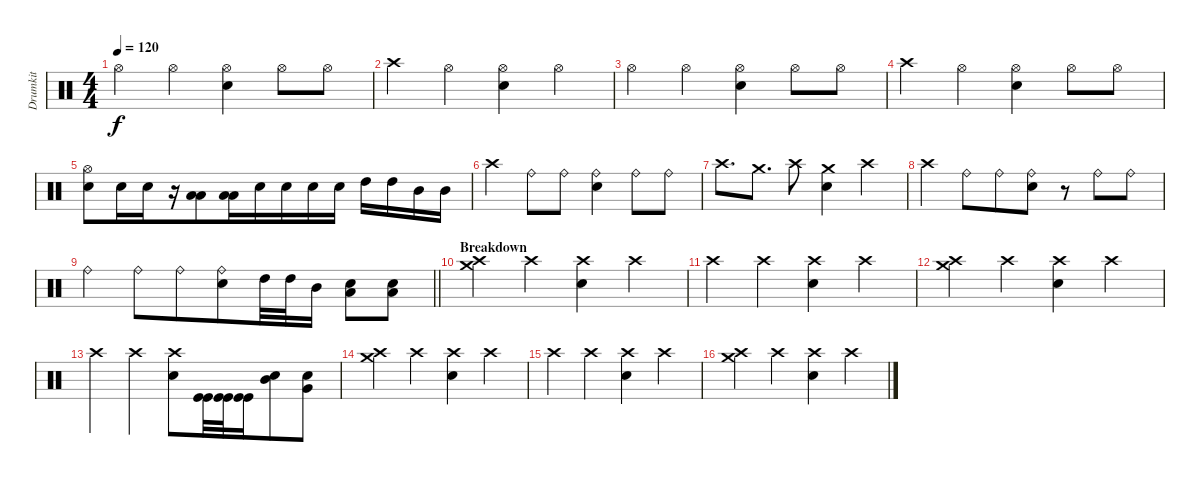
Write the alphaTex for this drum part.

\track ("Drumkit" "Drumkit") {instrument percussion}
\staff {score}
\articulation defaults
\ts (4 4)
\tempo 120
\clef neutral
\ks c "Hi-Hat (open)".4{dy f} "Hi-Hat (open)".4
("Hi-Hat (open)" "Electric Snare (hit)").4 "Hi-Hat (open)".8{beam merge} "Hi-Hat (open)".8 |
"Crash high (hit)".4 "Hi-Hat (open)".4{beam merge} ("Hi-Hat (open)" "Electric Snare (hit)").4 "Hi-Hat (open)".4 |
"Hi-Hat (open)".4 "Hi-Hat (open)".4 ("Hi-Hat (open)" "Electric Snare (hit)").4 "Hi-Hat (open)".8 "Hi-Hat (open)".8 |
"Crash high (hit)".4 "Hi-Hat (open)".4{beam merge} ("Hi-Hat (open)" "Electric Snare (hit)").4 "Hi-Hat (open)".8 "Hi-Hat (open)".8 |
("Hi-Hat (open)" "Electric Snare (hit)").8 "Electric Snare (hit)".16 "Electric Snare (hit)".16{beam merge} r.16 ("Low Floor Tom (hit)" "Low Floor Tom (hit)").8 ("Low Floor Tom (hit)" "Low Floor Tom (hit)").16{beam merge} "Electric Snare (hit)".16{beam merge} "Electric Snare (hit)".16{beam merge} "Electric Snare (hit)".16 "Electric Snare (hit)".16 "High Tom (hit)".16{beam merge} "High Tom (hit)".16 "Mid Tom (hit)".16{beam merge} "Mid Tom (hit)".16 |
"Crash high (hit)".4 "Ride (bell)".8{beam merge} "Ride (bell)".8{beam merge} ("Ride (bell)" "Electric Snare (hit)").4{beam merge} "Ride (bell)".8 "Ride (bell)".8 |
"Crash high (hit)".8{d beam merge} "Crash medium (hit)".8{d} "Crash high (hit)".8 ("Crash medium (hit)" "Electric Snare (hit)").4 "Crash high (hit)".4 |
"Crash high (hit)".4{beam merge} "Ride (bell)".8 "Ride (bell)".8{beam merge} ("Ride (bell)" "Electric Snare (hit)").8 r.8{beam merge} "Ride (bell)".8 "Ride (bell)".8 |
\barLineRight lightlight "Ride (bell)".4 "Ride (bell)".8{beam merge} "Ride (bell)".8{beam merge}
("Ride (bell)" "Electric Snare (hit)").8{beam merge} "High Tom (hit)".32{beam merge} "High Tom (hit)".32 "Mid Tom (hit)".16 ("Low Floor Tom (hit)" "Electric Snare (hit)").8 ("Low Floor Tom (hit)" "Electric Snare (hit)").8 |
\section ("" "Breakdown")
("Crash medium (hit)" "Crash high (hit)").4 "Crash high (hit)".4 ("Crash high (hit)" "Electric Snare (hit)").4 "Crash high (hit)".4 |
"Crash high (hit)".4{beam merge} "Crash high (hit)".4{beam merge} ("Crash high (hit)" "Electric Snare (hit)").4 "Crash high (hit)".4 |
("Crash medium (hit)" "Crash high (hit)").4 "Crash high (hit)".4 ("Crash high (hit)" "Electric Snare (hit)").4 "Crash high (hit)".4 |
"Crash high (hit)".4{beam merge} "Crash high (hit)".4{beam merge} ("Crash high (hit)" "Electric Snare (hit)").8 ("Kick (hit)" "Kick (hit)").32 ("Kick (hit)" "Kick (hit)").32 ("Kick (hit)" "Kick (hit)").16{beam merge} ("Mid Tom (hit)" "Electric Snare (hit)").8 ("Very Low Tom (hit)" "Electric Snare (hit)").8 |
("Crash medium (hit)" "Crash high (hit)").4 "Crash high (hit)".4 ("Crash high (hit)" "Electric Snare (hit)").4 "Crash high (hit)".4 |
"Crash high (hit)".4{beam merge} "Crash high (hit)".4{beam merge} ("Crash high (hit)" "Electric Snare (hit)").4 "Crash high (hit)".4 |
("Crash medium (hit)" "Crash high (hit)").4 "Crash high (hit)".4 ("Crash high (hit)" "Electric Snare (hit)").4 "Crash high (hit)".4
